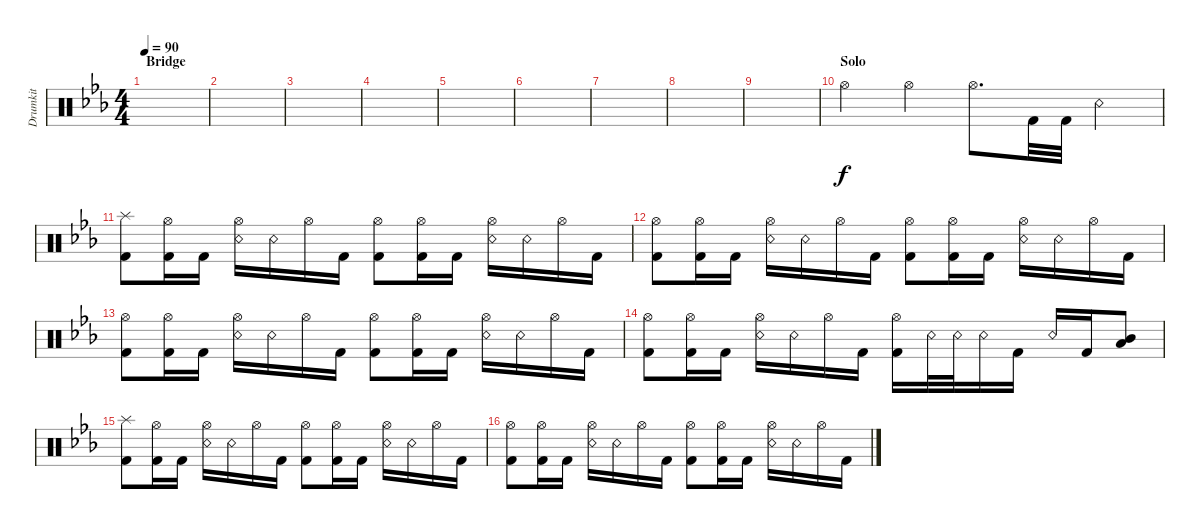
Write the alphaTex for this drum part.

\track ("Drumkit" "Drumkit") {instrument percussion}
\staff {score}
\articulation defaults
\ts (4 4)
\section ("" "Bridge")
\tempo 90
\clef neutral
\ks cminor
|
|
|
|
|
|
|
|
|
\section ("" "Solo")
"Hi-Hat (open)".4 "Hi-Hat (open)".4 "Hi-Hat (open)".8{d} "Kick (hit) 2".32 "Kick (hit) 2".32 "Snare (rim shot)".4 |
("Splash (hit)" "Kick (hit) 2").8 ("Kick (hit) 2" "Hi-Hat (open)").16 "Kick (hit) 2".16 ("Snare (rim shot)" "Hi-Hat (open)").16 "Snare (rim shot)".16 "Hi-Hat (open)".16 "Kick (hit) 2".16 ("Kick (hit) 2" "Hi-Hat (open)").8 ("Kick (hit) 2" "Hi-Hat (open)").16 "Kick (hit) 2".16 ("Snare (rim shot)" "Hi-Hat (open)").16 "Snare (rim shot)".16 "Hi-Hat (open)".16 "Kick (hit) 2".16 |
("Kick (hit) 2" "Hi-Hat (open)").8 ("Kick (hit) 2" "Hi-Hat (open)").16 "Kick (hit) 2".16 ("Snare (rim shot)" "Hi-Hat (open)").16 "Snare (rim shot)".16 "Hi-Hat (open)".16 "Kick (hit) 2".16 ("Kick (hit) 2" "Hi-Hat (open)").8 ("Kick (hit) 2" "Hi-Hat (open)").16 "Kick (hit) 2".16 ("Snare (rim shot)" "Hi-Hat (open)").16 "Snare (rim shot)".16 "Hi-Hat (open)".16 "Kick (hit) 2".16 |
("Kick (hit) 2" "Hi-Hat (open)").8 ("Kick (hit) 2" "Hi-Hat (open)").16 "Kick (hit) 2".16 ("Snare (rim shot)" "Hi-Hat (open)").16 "Snare (rim shot)".16 "Hi-Hat (open)".16 "Kick (hit) 2".16 ("Kick (hit) 2" "Hi-Hat (open)").8 ("Kick (hit) 2" "Hi-Hat (open)").16 "Kick (hit) 2".16 ("Snare (rim shot)" "Hi-Hat (open)").16 "Snare (rim shot)".16 "Hi-Hat (open)".16 "Kick (hit) 2".16 |
("Kick (hit) 2" "Hi-Hat (open)").8 ("Kick (hit) 2" "Hi-Hat (open)").16 "Kick (hit) 2".16 ("Snare (rim shot)" "Hi-Hat (open)").16 "Snare (rim shot)".16 "Hi-Hat (open)".16 "Kick (hit) 2".16 ("Kick (hit) 2" "Hi-Hat (open)").16 "Snare (rim shot)".32 "Snare (rim shot)".32 "Snare (rim shot)".16 "Kick (hit) 2".16 "Snare (rim shot)".16 "Kick (hit) 2".16 ("Mid Tom (hit)" "Low Tom (hit)").8 |
("Splash (hit)" "Kick (hit) 2").8 ("Kick (hit) 2" "Hi-Hat (open)").16 "Kick (hit) 2".16 ("Snare (rim shot)" "Hi-Hat (open)").16 "Snare (rim shot)".16 "Hi-Hat (open)".16 "Kick (hit) 2".16 ("Kick (hit) 2" "Hi-Hat (open)").8 ("Kick (hit) 2" "Hi-Hat (open)").16 "Kick (hit) 2".16 ("Snare (rim shot)" "Hi-Hat (open)").16 "Snare (rim shot)".16 "Hi-Hat (open)".16 "Kick (hit) 2".16 |
("Kick (hit) 2" "Hi-Hat (open)").8 ("Kick (hit) 2" "Hi-Hat (open)").16 "Kick (hit) 2".16 ("Snare (rim shot)" "Hi-Hat (open)").16 "Snare (rim shot)".16 "Hi-Hat (open)".16 "Kick (hit) 2".16 ("Kick (hit) 2" "Hi-Hat (open)").8 ("Kick (hit) 2" "Hi-Hat (open)").16 "Kick (hit) 2".16 ("Snare (rim shot)" "Hi-Hat (open)").16 "Snare (rim shot)".16 "Hi-Hat (open)".16 "Kick (hit) 2".16
